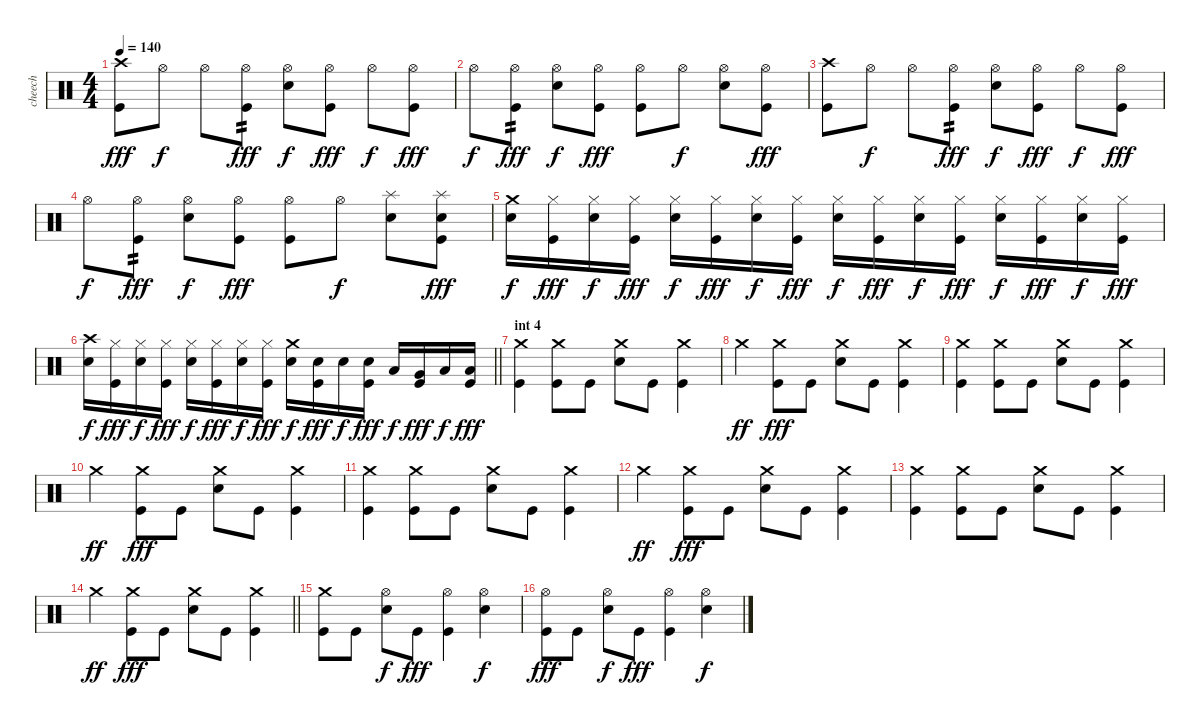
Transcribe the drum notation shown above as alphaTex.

\track ("cheech" "cheech") {solo instrument percussion}
\staff {score}
\articulation defaults
\ts (4 4)
\tempo 140
\clef neutral
\ks c
("Crash high (hit)" "Kick (hit)").8{dy fff} "Hi-Hat (open)".8{dy f} "Hi-Hat (open)".8 ("Hi-Hat (open)" "Kick (hit)").8{tp 2 dy fff} ("Hi-Hat (open)" "Electric Snare (hit)").8{dy f} ("Hi-Hat (open)" "Kick (hit)").8{dy fff} "Hi-Hat (open)".8{dy f} ("Hi-Hat (open)" "Kick (hit)").8{dy fff} |
"Hi-Hat (open)".8{dy f} ("Hi-Hat (open)" "Kick (hit)").8{tp 2 dy fff} ("Hi-Hat (open)" "Electric Snare (hit)").8{dy f} ("Hi-Hat (open)" "Kick (hit)").8{dy fff} ("Hi-Hat (open)" "Kick (hit)").8 "Hi-Hat (open)".8{dy f} ("Hi-Hat (open)" "Electric Snare (hit)").8 ("Hi-Hat (open)" "Kick (hit)").8{dy fff} |
("Crash high (hit)" "Kick (hit)").8 "Hi-Hat (open)".8{dy f} "Hi-Hat (open)".8 ("Hi-Hat (open)" "Kick (hit)").8{tp 2 dy fff} ("Hi-Hat (open)" "Electric Snare (hit)").8{dy f} ("Hi-Hat (open)" "Kick (hit)").8{dy fff} "Hi-Hat (open)".8{dy f} ("Hi-Hat (open)" "Kick (hit)").8{dy fff} |
"Hi-Hat (open)".8{dy f} ("Hi-Hat (open)" "Kick (hit)").8{tp 2 dy fff} ("Hi-Hat (open)" "Electric Snare (hit)").8{dy f} ("Hi-Hat (open)" "Kick (hit)").8{dy fff} ("Hi-Hat (open)" "Kick (hit)").8 "Hi-Hat (open)".8{dy f} ("Splash (hit)" "Electric Snare (hit)").8 ("Splash (hit)" "Electric Snare (hit)" "Kick (hit)").8{dy fff} |
("Crash medium (hit)" "Electric Snare (hit)").16{dy f} ("Hi-Hat (closed)" "Kick (hit)").16{dy fff} ("Hi-Hat (closed)" "Electric Snare (hit)").16{dy f} ("Hi-Hat (closed)" "Kick (hit)").16{dy fff} ("Hi-Hat (closed)" "Electric Snare (hit)").16{dy f} ("Hi-Hat (closed)" "Kick (hit)").16{dy fff} ("Hi-Hat (closed)" "Electric Snare (hit)").16{dy f} ("Hi-Hat (closed)" "Kick (hit)").16{dy fff} ("Hi-Hat (closed)" "Electric Snare (hit)").16{dy f} ("Hi-Hat (closed)" "Kick (hit)").16{dy fff} ("Hi-Hat (closed)" "Electric Snare (hit)").16{dy f} ("Hi-Hat (closed)" "Kick (hit)").16{dy fff} ("Hi-Hat (closed)" "Electric Snare (hit)").16{dy f} ("Hi-Hat (closed)" "Kick (hit)").16{dy fff} ("Hi-Hat (closed)" "Electric Snare (hit)").16{dy f} ("Hi-Hat (closed)" "Kick (hit)").16{dy fff} |
\barLineRight lightlight
("Crash high (hit)" "Electric Snare (hit)").16{dy f} ("Hi-Hat (closed)" "Kick (hit)").16{dy fff} ("Hi-Hat (closed)" "Electric Snare (hit)").16{dy f} ("Hi-Hat (closed)" "Kick (hit)").16{dy fff} ("Hi-Hat (closed)" "Electric Snare (hit)").16{dy f} ("Hi-Hat (closed)" "Kick (hit)").16{dy fff} ("Hi-Hat (closed)" "Electric Snare (hit)").16{dy f} ("Hi-Hat (closed)" "Kick (hit)").16{dy fff} ("Crash medium (hit)" "Electric Snare (hit)").16{dy f} ("Electric Snare (hit)" "Kick (hit)").16{dy fff} "Electric Snare (hit)".16{dy f} ("Electric Snare (hit)" "Kick (hit)").16{dy fff} "Low Tom (hit)".16{dy f} ("Very Low Tom (hit)" "Kick (hit)").16{dy fff} "Low Floor Tom (hit)".16{dy f} ("Low Floor Tom (hit)" "Kick (hit)").16{dy fff} |
\section ("" "int 4")
("Crash medium (hit)" "Kick (hit)").4 ("Crash medium (hit)" "Kick (hit)").8 "Kick (hit)".8 ("Crash medium (hit)" "Electric Snare (hit)").8 "Kick (hit)".8 ("Crash medium (hit)" "Kick (hit)").4 |
"Crash medium (hit)".4{dy ff} ("Crash medium (hit)" "Kick (hit)").8{dy fff} "Kick (hit)".8 ("Crash medium (hit)" "Electric Snare (hit)").8 "Kick (hit)".8 ("Crash medium (hit)" "Kick (hit)").4 |
("Crash medium (hit)" "Kick (hit)").4 ("Crash medium (hit)" "Kick (hit)").8 "Kick (hit)".8 ("Crash medium (hit)" "Electric Snare (hit)").8 "Kick (hit)".8 ("Crash medium (hit)" "Kick (hit)").4 |
"Crash medium (hit)".4{dy ff} ("Crash medium (hit)" "Kick (hit)").8{dy fff} "Kick (hit)".8 ("Crash medium (hit)" "Electric Snare (hit)").8 "Kick (hit)".8 ("Crash medium (hit)" "Kick (hit)").4 |
("Crash medium (hit)" "Kick (hit)").4 ("Crash medium (hit)" "Kick (hit)").8 "Kick (hit)".8 ("Crash medium (hit)" "Electric Snare (hit)").8 "Kick (hit)".8 ("Crash medium (hit)" "Kick (hit)").4 |
"Crash medium (hit)".4{dy ff} ("Crash medium (hit)" "Kick (hit)").8{dy fff} "Kick (hit)".8 ("Crash medium (hit)" "Electric Snare (hit)").8 "Kick (hit)".8 ("Crash medium (hit)" "Kick (hit)").4 |
("Crash medium (hit)" "Kick (hit)").4 ("Crash medium (hit)" "Kick (hit)").8 "Kick (hit)".8 ("Crash medium (hit)" "Electric Snare (hit)").8 "Kick (hit)".8 ("Crash medium (hit)" "Kick (hit)").4 |
\barLineRight lightlight "Crash medium (hit)".4{dy ff}
("Crash medium (hit)" "Kick (hit)").8{dy fff} "Kick (hit)".8 ("Crash medium (hit)" "Electric Snare (hit)").8 "Kick (hit)".8 ("Crash medium (hit)" "Kick (hit)").4 |
("Crash medium (hit)" "Kick (hit)").8 "Kick (hit)".8 ("Hi-Hat (open)" "Electric Snare (hit)").8{dy f} "Kick (hit)".8{dy fff} ("Hi-Hat (open)" "Kick (hit)").4 ("Hi-Hat (open)" "Electric Snare (hit)").4{dy f} |
("Hi-Hat (open)" "Kick (hit)").8{dy fff} "Kick (hit)".8 ("Hi-Hat (open)" "Electric Snare (hit)").8{dy f} "Kick (hit)".8{dy fff} ("Hi-Hat (open)" "Kick (hit)").4 ("Hi-Hat (open)" "Electric Snare (hit)").4{dy f}
